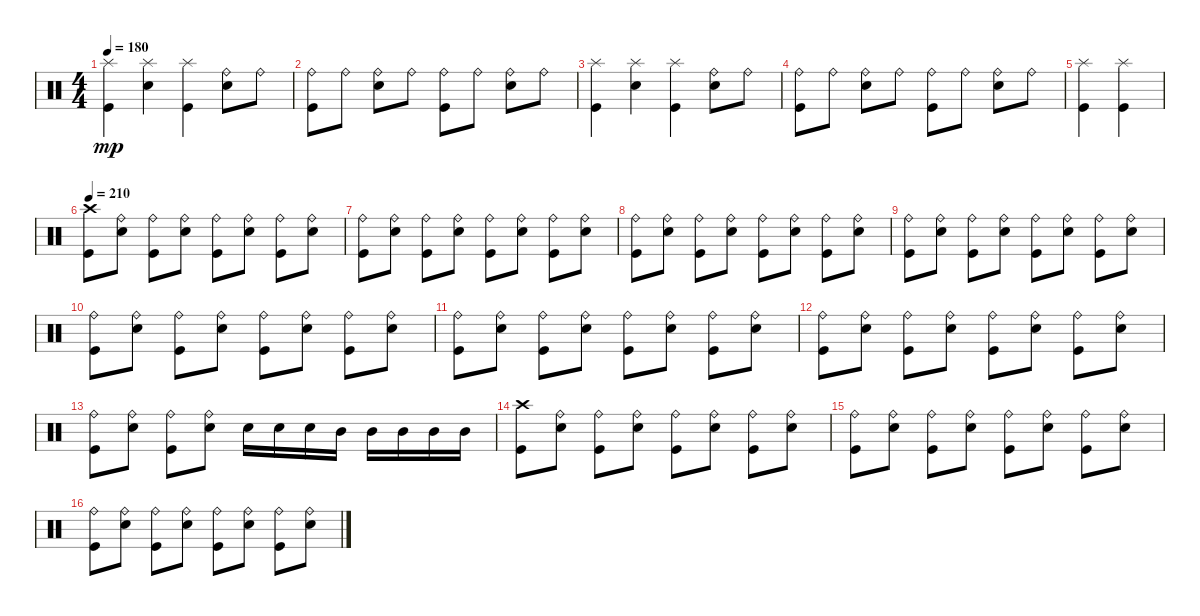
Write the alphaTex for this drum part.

\track "" {instrument percussion}
\staff {score}
\articulation defaults
\ts (4 4)
\tempo 180
\clef neutral
\ks c
("Kick (hit)" "Splash (hit)").4{dy mp} ("Electric Snare (hit)" "Splash (hit)").4 ("Kick (hit)" "Splash (hit)").4 ("Electric Snare (hit)" "Ride (bell)").8 "Ride (bell)".8 |
("Kick (hit)" "Ride (bell)").8 "Ride (bell)".8 ("Electric Snare (hit)" "Ride (bell)").8 "Ride (bell)".8 ("Kick (hit)" "Ride (bell)").8 "Ride (bell)".8 ("Electric Snare (hit)" "Ride (bell)").8 "Ride (bell)".8 |
("Kick (hit)" "Splash (hit)").4 ("Electric Snare (hit)" "Splash (hit)").4 ("Kick (hit)" "Splash (hit)").4 ("Electric Snare (hit)" "Ride (bell)").8 "Ride (bell)".8 |
("Kick (hit)" "Ride (bell)").8 "Ride (bell)".8 ("Electric Snare (hit)" "Ride (bell)").8 "Ride (bell)".8 ("Kick (hit)" "Ride (bell)").8 "Ride (bell)".8 ("Electric Snare (hit)" "Ride (bell)").8 "Ride (bell)".8 |
("Kick (hit)" "Splash (hit)").4 ("Kick (hit)" "Splash (hit)").4 |
\tempo 210
("Kick (hit)" "Crash high (hit)").8 ("Electric Snare (hit)" "Ride (bell)").8 ("Kick (hit)" "Ride (bell)").8 ("Electric Snare (hit)" "Ride (bell)").8 ("Kick (hit)" "Ride (bell)").8 ("Electric Snare (hit)" "Ride (bell)").8 ("Kick (hit)" "Ride (bell)").8 ("Electric Snare (hit)" "Ride (bell)").8 |
("Kick (hit)" "Ride (bell)").8 ("Electric Snare (hit)" "Ride (bell)").8 ("Kick (hit)" "Ride (bell)").8 ("Electric Snare (hit)" "Ride (bell)").8 ("Kick (hit)" "Ride (bell)").8 ("Electric Snare (hit)" "Ride (bell)").8 ("Kick (hit)" "Ride (bell)").8 ("Electric Snare (hit)" "Ride (bell)").8 |
("Kick (hit)" "Ride (bell)").8 ("Electric Snare (hit)" "Ride (bell)").8 ("Kick (hit)" "Ride (bell)").8 ("Electric Snare (hit)" "Ride (bell)").8 ("Kick (hit)" "Ride (bell)").8 ("Electric Snare (hit)" "Ride (bell)").8 ("Kick (hit)" "Ride (bell)").8 ("Electric Snare (hit)" "Ride (bell)").8 |
("Kick (hit)" "Ride (bell)").8 ("Electric Snare (hit)" "Ride (bell)").8 ("Kick (hit)" "Ride (bell)").8 ("Electric Snare (hit)" "Ride (bell)").8 ("Kick (hit)" "Ride (bell)").8 ("Electric Snare (hit)" "Ride (bell)").8 ("Kick (hit)" "Ride (bell)").8 ("Electric Snare (hit)" "Ride (bell)").8 |
("Kick (hit)" "Ride (bell)").8 ("Electric Snare (hit)" "Ride (bell)").8 ("Kick (hit)" "Ride (bell)").8 ("Electric Snare (hit)" "Ride (bell)").8 ("Kick (hit)" "Ride (bell)").8 ("Electric Snare (hit)" "Ride (bell)").8 ("Kick (hit)" "Ride (bell)").8 ("Electric Snare (hit)" "Ride (bell)").8 |
("Kick (hit)" "Ride (bell)").8 ("Electric Snare (hit)" "Ride (bell)").8 ("Kick (hit)" "Ride (bell)").8 ("Electric Snare (hit)" "Ride (bell)").8 ("Kick (hit)" "Ride (bell)").8 ("Electric Snare (hit)" "Ride (bell)").8 ("Kick (hit)" "Ride (bell)").8 ("Electric Snare (hit)" "Ride (bell)").8 |
("Kick (hit)" "Ride (bell)").8 ("Electric Snare (hit)" "Ride (bell)").8 ("Kick (hit)" "Ride (bell)").8 ("Electric Snare (hit)" "Ride (bell)").8 ("Kick (hit)" "Ride (bell)").8 ("Electric Snare (hit)" "Ride (bell)").8 ("Kick (hit)" "Ride (bell)").8 ("Electric Snare (hit)" "Ride (bell)").8 |
("Kick (hit)" "Ride (bell)").8 ("Electric Snare (hit)" "Ride (bell)").8 ("Kick (hit)" "Ride (bell)").8 ("Electric Snare (hit)" "Ride (bell)").8 "Electric Snare (hit)".16 "Electric Snare (hit)".16 "Electric Snare (hit)".16 "Mid Tom (hit)".16 "Mid Tom (hit)".16 "Mid Tom (hit)".16 "Mid Tom (hit)".16 "Mid Tom (hit)".16 |
("Kick (hit)" "Crash high (hit)").8 ("Electric Snare (hit)" "Ride (bell)").8 ("Kick (hit)" "Ride (bell)").8 ("Electric Snare (hit)" "Ride (bell)").8 ("Kick (hit)" "Ride (bell)").8 ("Electric Snare (hit)" "Ride (bell)").8 ("Kick (hit)" "Ride (bell)").8 ("Electric Snare (hit)" "Ride (bell)").8 |
("Kick (hit)" "Ride (bell)").8 ("Electric Snare (hit)" "Ride (bell)").8 ("Kick (hit)" "Ride (bell)").8 ("Electric Snare (hit)" "Ride (bell)").8 ("Kick (hit)" "Ride (bell)").8 ("Electric Snare (hit)" "Ride (bell)").8 ("Kick (hit)" "Ride (bell)").8 ("Electric Snare (hit)" "Ride (bell)").8 |
("Kick (hit)" "Ride (bell)").8 ("Electric Snare (hit)" "Ride (bell)").8 ("Kick (hit)" "Ride (bell)").8 ("Electric Snare (hit)" "Ride (bell)").8 ("Kick (hit)" "Ride (bell)").8 ("Electric Snare (hit)" "Ride (bell)").8 ("Kick (hit)" "Ride (bell)").8 ("Electric Snare (hit)" "Ride (bell)").8
